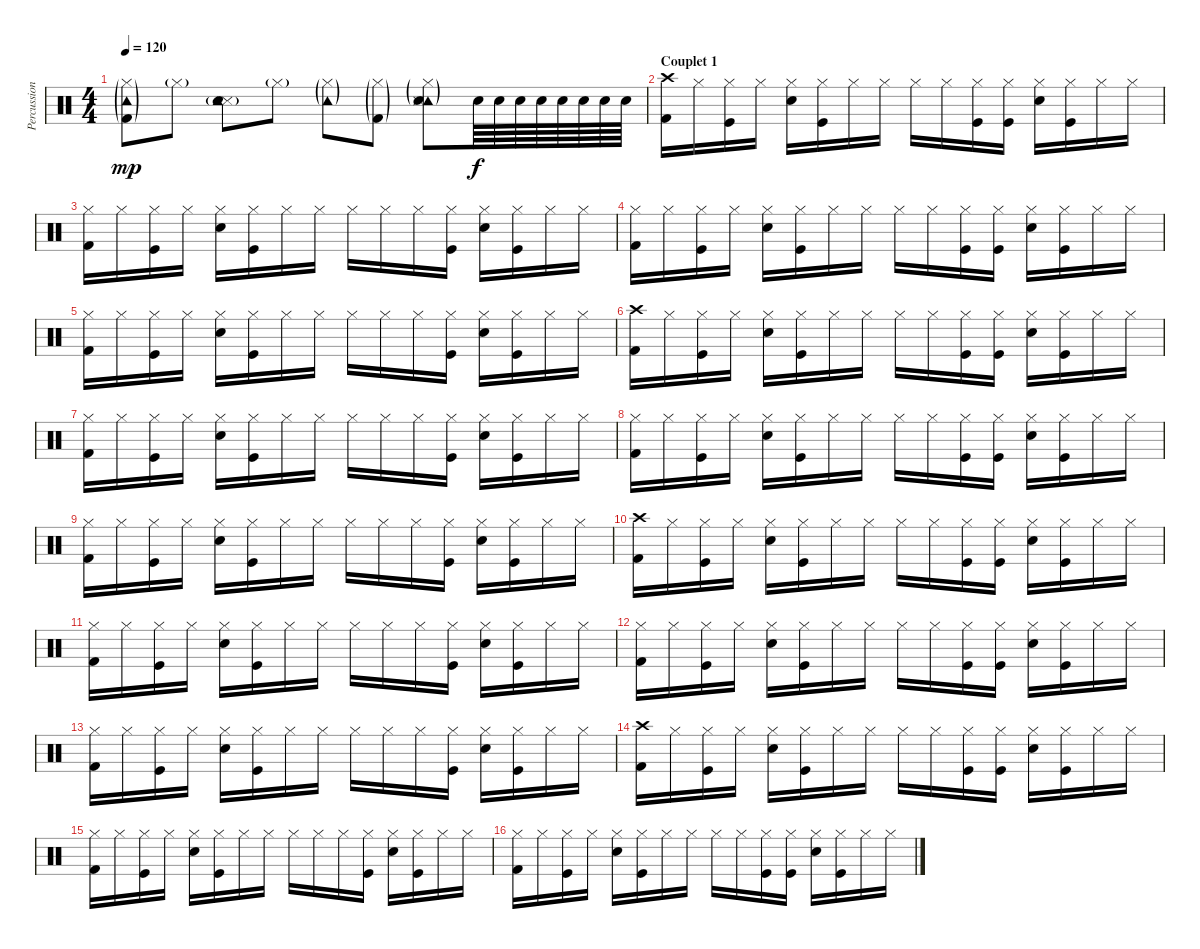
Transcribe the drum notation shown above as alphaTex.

\track ("Percussions" "Percussion") {instrument percussion}
\staff {score}
\articulation defaults
\ts (4 4)
\tempo 120
\clef neutral
\ks c
("Kick (hit) 2"{g} "Hi-Hat (closed)"{g} "Tambourine (hit)"{g}).8{dy mp} "Hi-Hat (closed)"{g}.8 ("Snare (side stick) 3"{g} "Snare (hit) 2"{g} "Tambourine (hit)"{g}).8 "Hi-Hat (closed)"{g}.8 ("Hi-Hat (closed)"{g} "Tambourine (hit)"{g}).8 ("Hi-Hat (closed)"{g} "Kick (hit) 2"{g}).8 ("Hi-Hat (closed)"{g} "Tambourine (hit)"{g} "Snare (side stick) 3"{g} "Snare (hit) 2"{g}).8 "Electric Snare (hit)".64{dy f} "Electric Snare (hit)".64 "Electric Snare (hit)".64 "Electric Snare (hit)".64 "Electric Snare (hit)".64 "Electric Snare (hit)".64 "Electric Snare (hit)".64 "Electric Snare (hit)".64 |
\section ("" "Couplet 1")
("Crash high (hit)" "Kick (hit) 2").16 "Hi-Hat (closed)".16 ("Hi-Hat (closed)" "Kick (hit)").16 "Hi-Hat (closed)".16 ("Hi-Hat (closed)" "Electric Snare (hit)").16 ("Hi-Hat (closed)" "Kick (hit)").16 "Hi-Hat (closed)".16 "Hi-Hat (closed)".16 "Hi-Hat (closed)".16 "Hi-Hat (closed)".16 ("Hi-Hat (closed)" "Kick (hit)").16 ("Hi-Hat (closed)" "Kick (hit)").16 ("Hi-Hat (closed)" "Electric Snare (hit)").16 ("Hi-Hat (closed)" "Kick (hit)").16 "Hi-Hat (closed)".16 "Hi-Hat (closed)".16 |
("Hi-Hat (closed)" "Kick (hit) 2").16 "Hi-Hat (closed)".16 ("Hi-Hat (closed)" "Kick (hit)").16 "Hi-Hat (closed)".16 ("Hi-Hat (closed)" "Electric Snare (hit)").16 ("Hi-Hat (closed)" "Kick (hit)").16 "Hi-Hat (closed)".16 "Hi-Hat (closed)".16 "Hi-Hat (closed)".16 "Hi-Hat (closed)".16 "Hi-Hat (closed)".16 ("Hi-Hat (closed)" "Kick (hit)").16 ("Hi-Hat (closed)" "Electric Snare (hit)").16 ("Hi-Hat (closed)" "Kick (hit)").16 "Hi-Hat (closed)".16 "Hi-Hat (closed)".16 |
("Hi-Hat (closed)" "Kick (hit) 2").16 "Hi-Hat (closed)".16 ("Hi-Hat (closed)" "Kick (hit)").16 "Hi-Hat (closed)".16 ("Hi-Hat (closed)" "Electric Snare (hit)").16 ("Hi-Hat (closed)" "Kick (hit)").16 "Hi-Hat (closed)".16 "Hi-Hat (closed)".16 "Hi-Hat (closed)".16 "Hi-Hat (closed)".16 ("Hi-Hat (closed)" "Kick (hit)").16 ("Hi-Hat (closed)" "Kick (hit)").16 ("Hi-Hat (closed)" "Electric Snare (hit)").16 ("Hi-Hat (closed)" "Kick (hit)").16 "Hi-Hat (closed)".16 "Hi-Hat (closed)".16 |
("Hi-Hat (closed)" "Kick (hit) 2").16 "Hi-Hat (closed)".16 ("Hi-Hat (closed)" "Kick (hit)").16 "Hi-Hat (closed)".16 ("Hi-Hat (closed)" "Electric Snare (hit)").16 ("Hi-Hat (closed)" "Kick (hit)").16 "Hi-Hat (closed)".16 "Hi-Hat (closed)".16 "Hi-Hat (closed)".16 "Hi-Hat (closed)".16 "Hi-Hat (closed)".16 ("Hi-Hat (closed)" "Kick (hit)").16 ("Hi-Hat (closed)" "Electric Snare (hit)").16 ("Hi-Hat (closed)" "Kick (hit)").16 "Hi-Hat (closed)".16 "Hi-Hat (closed)".16 |
("Crash high (hit)" "Kick (hit) 2").16 "Hi-Hat (closed)".16 ("Hi-Hat (closed)" "Kick (hit)").16 "Hi-Hat (closed)".16 ("Hi-Hat (closed)" "Electric Snare (hit)").16 ("Hi-Hat (closed)" "Kick (hit)").16 "Hi-Hat (closed)".16 "Hi-Hat (closed)".16 "Hi-Hat (closed)".16 "Hi-Hat (closed)".16 ("Hi-Hat (closed)" "Kick (hit)").16 ("Hi-Hat (closed)" "Kick (hit)").16 ("Hi-Hat (closed)" "Electric Snare (hit)").16 ("Hi-Hat (closed)" "Kick (hit)").16 "Hi-Hat (closed)".16 "Hi-Hat (closed)".16 |
("Hi-Hat (closed)" "Kick (hit) 2").16 "Hi-Hat (closed)".16 ("Hi-Hat (closed)" "Kick (hit)").16 "Hi-Hat (closed)".16 ("Hi-Hat (closed)" "Electric Snare (hit)").16 ("Hi-Hat (closed)" "Kick (hit)").16 "Hi-Hat (closed)".16 "Hi-Hat (closed)".16 "Hi-Hat (closed)".16 "Hi-Hat (closed)".16 "Hi-Hat (closed)".16 ("Hi-Hat (closed)" "Kick (hit)").16 ("Hi-Hat (closed)" "Electric Snare (hit)").16 ("Hi-Hat (closed)" "Kick (hit)").16 "Hi-Hat (closed)".16 "Hi-Hat (closed)".16 |
("Hi-Hat (closed)" "Kick (hit) 2").16 "Hi-Hat (closed)".16 ("Hi-Hat (closed)" "Kick (hit)").16 "Hi-Hat (closed)".16 ("Hi-Hat (closed)" "Electric Snare (hit)").16 ("Hi-Hat (closed)" "Kick (hit)").16 "Hi-Hat (closed)".16 "Hi-Hat (closed)".16 "Hi-Hat (closed)".16 "Hi-Hat (closed)".16 ("Hi-Hat (closed)" "Kick (hit)").16 ("Hi-Hat (closed)" "Kick (hit)").16 ("Hi-Hat (closed)" "Electric Snare (hit)").16 ("Hi-Hat (closed)" "Kick (hit)").16 "Hi-Hat (closed)".16 "Hi-Hat (closed)".16 |
("Hi-Hat (closed)" "Kick (hit) 2").16 "Hi-Hat (closed)".16 ("Hi-Hat (closed)" "Kick (hit)").16 "Hi-Hat (closed)".16 ("Hi-Hat (closed)" "Electric Snare (hit)").16 ("Hi-Hat (closed)" "Kick (hit)").16 "Hi-Hat (closed)".16 "Hi-Hat (closed)".16 "Hi-Hat (closed)".16 "Hi-Hat (closed)".16 "Hi-Hat (closed)".16 ("Hi-Hat (closed)" "Kick (hit)").16 ("Hi-Hat (closed)" "Electric Snare (hit)").16 ("Hi-Hat (closed)" "Kick (hit)").16 "Hi-Hat (closed)".16 "Hi-Hat (closed)".16 |
("Crash high (hit)" "Kick (hit) 2").16 "Hi-Hat (closed)".16 ("Hi-Hat (closed)" "Kick (hit)").16 "Hi-Hat (closed)".16 ("Hi-Hat (closed)" "Electric Snare (hit)").16 ("Hi-Hat (closed)" "Kick (hit)").16 "Hi-Hat (closed)".16 "Hi-Hat (closed)".16 "Hi-Hat (closed)".16 "Hi-Hat (closed)".16 ("Hi-Hat (closed)" "Kick (hit)").16 ("Hi-Hat (closed)" "Kick (hit)").16 ("Hi-Hat (closed)" "Electric Snare (hit)").16 ("Hi-Hat (closed)" "Kick (hit)").16 "Hi-Hat (closed)".16 "Hi-Hat (closed)".16 |
("Hi-Hat (closed)" "Kick (hit) 2").16 "Hi-Hat (closed)".16 ("Hi-Hat (closed)" "Kick (hit)").16 "Hi-Hat (closed)".16 ("Hi-Hat (closed)" "Electric Snare (hit)").16 ("Hi-Hat (closed)" "Kick (hit)").16 "Hi-Hat (closed)".16 "Hi-Hat (closed)".16 "Hi-Hat (closed)".16 "Hi-Hat (closed)".16 "Hi-Hat (closed)".16 ("Hi-Hat (closed)" "Kick (hit)").16 ("Hi-Hat (closed)" "Electric Snare (hit)").16 ("Hi-Hat (closed)" "Kick (hit)").16 "Hi-Hat (closed)".16 "Hi-Hat (closed)".16 |
("Hi-Hat (closed)" "Kick (hit) 2").16 "Hi-Hat (closed)".16 ("Hi-Hat (closed)" "Kick (hit)").16 "Hi-Hat (closed)".16 ("Hi-Hat (closed)" "Electric Snare (hit)").16 ("Hi-Hat (closed)" "Kick (hit)").16 "Hi-Hat (closed)".16 "Hi-Hat (closed)".16 "Hi-Hat (closed)".16 "Hi-Hat (closed)".16 ("Hi-Hat (closed)" "Kick (hit)").16 ("Hi-Hat (closed)" "Kick (hit)").16 ("Hi-Hat (closed)" "Electric Snare (hit)").16 ("Hi-Hat (closed)" "Kick (hit)").16 "Hi-Hat (closed)".16 "Hi-Hat (closed)".16 |
("Hi-Hat (closed)" "Kick (hit) 2").16 "Hi-Hat (closed)".16 ("Hi-Hat (closed)" "Kick (hit)").16 "Hi-Hat (closed)".16 ("Hi-Hat (closed)" "Electric Snare (hit)").16 ("Hi-Hat (closed)" "Kick (hit)").16 "Hi-Hat (closed)".16 "Hi-Hat (closed)".16 "Hi-Hat (closed)".16 "Hi-Hat (closed)".16 "Hi-Hat (closed)".16 ("Hi-Hat (closed)" "Kick (hit)").16 ("Hi-Hat (closed)" "Electric Snare (hit)").16 ("Hi-Hat (closed)" "Kick (hit)").16 "Hi-Hat (closed)".16 "Hi-Hat (closed)".16 |
("Crash high (hit)" "Kick (hit) 2").16 "Hi-Hat (closed)".16 ("Hi-Hat (closed)" "Kick (hit)").16 "Hi-Hat (closed)".16 ("Hi-Hat (closed)" "Electric Snare (hit)").16 ("Hi-Hat (closed)" "Kick (hit)").16 "Hi-Hat (closed)".16 "Hi-Hat (closed)".16 "Hi-Hat (closed)".16 "Hi-Hat (closed)".16 ("Hi-Hat (closed)" "Kick (hit)").16 ("Hi-Hat (closed)" "Kick (hit)").16 ("Hi-Hat (closed)" "Electric Snare (hit)").16 ("Hi-Hat (closed)" "Kick (hit)").16 "Hi-Hat (closed)".16 "Hi-Hat (closed)".16 |
("Hi-Hat (closed)" "Kick (hit) 2").16 "Hi-Hat (closed)".16 ("Hi-Hat (closed)" "Kick (hit)").16 "Hi-Hat (closed)".16 ("Hi-Hat (closed)" "Electric Snare (hit)").16 ("Hi-Hat (closed)" "Kick (hit)").16 "Hi-Hat (closed)".16 "Hi-Hat (closed)".16 "Hi-Hat (closed)".16 "Hi-Hat (closed)".16 "Hi-Hat (closed)".16 ("Hi-Hat (closed)" "Kick (hit)").16 ("Hi-Hat (closed)" "Electric Snare (hit)").16 ("Hi-Hat (closed)" "Kick (hit)").16 "Hi-Hat (closed)".16 "Hi-Hat (closed)".16 |
("Hi-Hat (closed)" "Kick (hit) 2").16 "Hi-Hat (closed)".16 ("Hi-Hat (closed)" "Kick (hit)").16 "Hi-Hat (closed)".16 ("Hi-Hat (closed)" "Electric Snare (hit)").16 ("Hi-Hat (closed)" "Kick (hit)").16 "Hi-Hat (closed)".16 "Hi-Hat (closed)".16 "Hi-Hat (closed)".16 "Hi-Hat (closed)".16 ("Hi-Hat (closed)" "Kick (hit)").16 ("Hi-Hat (closed)" "Kick (hit)").16 ("Hi-Hat (closed)" "Electric Snare (hit)").16 ("Hi-Hat (closed)" "Kick (hit)").16 "Hi-Hat (closed)".16 "Hi-Hat (closed)".16
